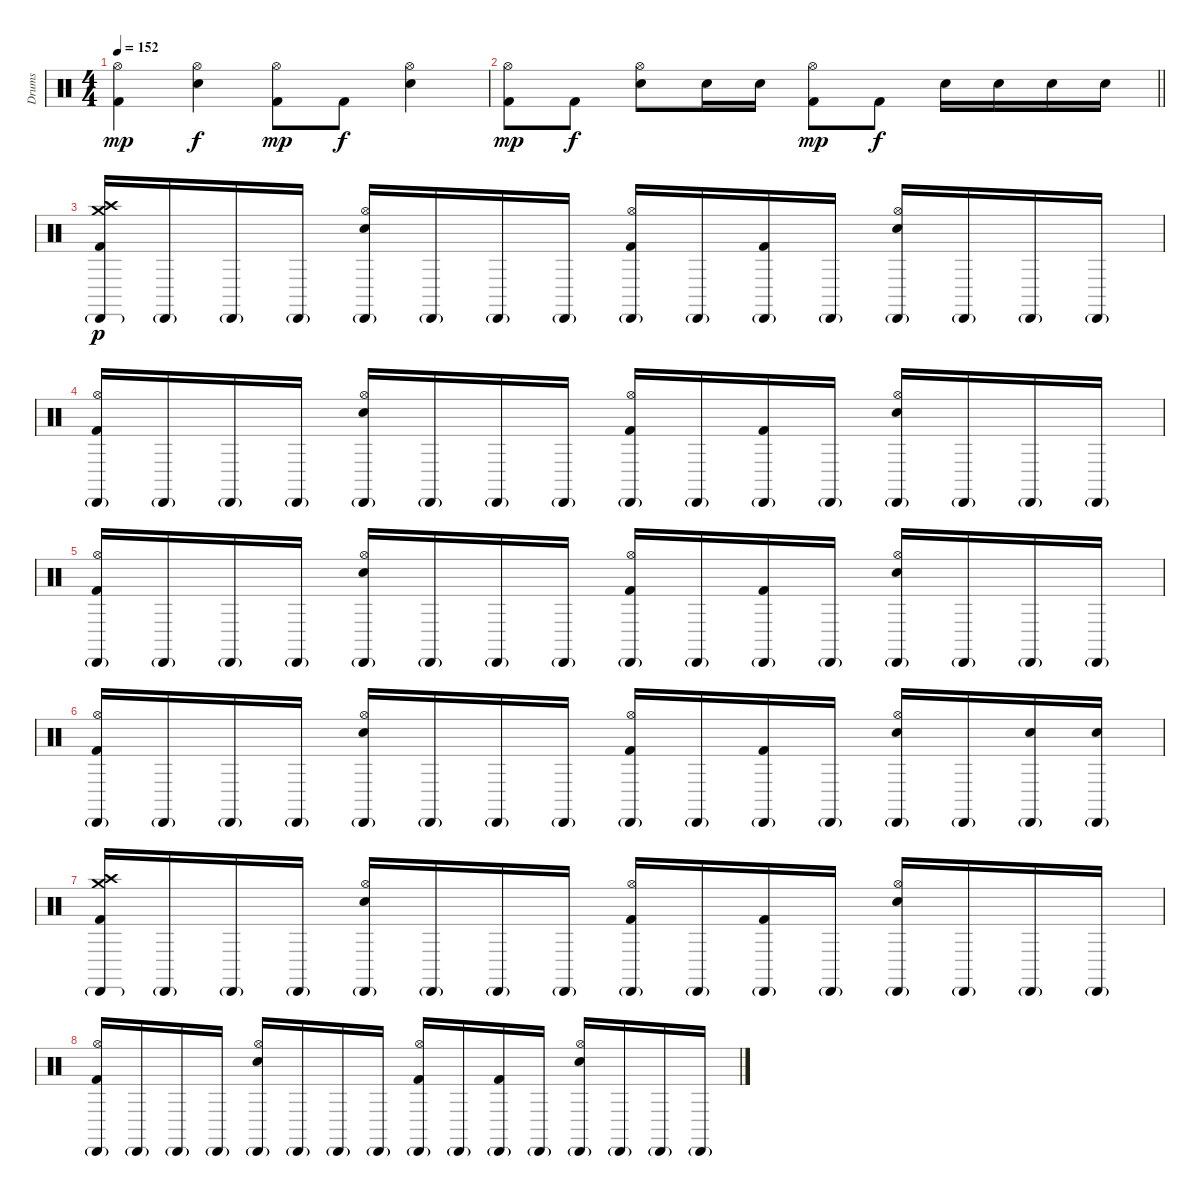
\track ("Drums" "Drums") {instrument percussion}
\staff {score}
\articulation defaults
\ts (4 4)
\tempo 152
\clef neutral
\ks c
("Hi-Hat (open)" "Kick (hit) 2").4{dy mp} ("Hi-Hat (open)" "Electric Snare (hit)").4{dy f} ("Hi-Hat (open)" "Kick (hit) 2").8{dy mp} "Kick (hit) 2".8{dy f} ("Hi-Hat (open)" "Electric Snare (hit)").4 |
\barLineRight lightlight
("Hi-Hat (open)" "Kick (hit) 2").8{dy mp} "Kick (hit) 2".8{dy f} ("Hi-Hat (open)" "Electric Snare (hit)").8 "Electric Snare (hit)".16 "Electric Snare (hit)".16 ("Hi-Hat (open)" "Kick (hit) 2").8{dy mp} "Kick (hit) 2".8{dy f} "Electric Snare (hit)".16 "Electric Snare (hit)".16 "Electric Snare (hit)".16 "Electric Snare (hit)".16 |
("Crash high (hit)" "Crash medium (hit)" "Cabasa (hit)"{g} "Kick (hit) 2").16{dy p} "Cabasa (hit)"{g}.16 "Cabasa (hit)"{g}.16 "Cabasa (hit)"{g}.16 ("Hi-Hat (open)" "Cabasa (hit)"{g} "Electric Snare (hit)").16 "Cabasa (hit)"{g}.16 "Cabasa (hit)"{g}.16 "Cabasa (hit)"{g}.16 ("Hi-Hat (open)" "Cabasa (hit)"{g} "Kick (hit) 2").16 "Cabasa (hit)"{g}.16 ("Cabasa (hit)"{g} "Kick (hit) 2").16 "Cabasa (hit)"{g}.16 ("Hi-Hat (open)" "Cabasa (hit)"{g} "Electric Snare (hit)").16 "Cabasa (hit)"{g}.16 "Cabasa (hit)"{g}.16 "Cabasa (hit)"{g}.16 |
("Hi-Hat (open)" "Cabasa (hit)"{g} "Kick (hit) 2").16 "Cabasa (hit)"{g}.16 "Cabasa (hit)"{g}.16 "Cabasa (hit)"{g}.16 ("Hi-Hat (open)" "Cabasa (hit)"{g} "Electric Snare (hit)").16 "Cabasa (hit)"{g}.16 "Cabasa (hit)"{g}.16 "Cabasa (hit)"{g}.16 ("Hi-Hat (open)" "Cabasa (hit)"{g} "Kick (hit) 2").16 "Cabasa (hit)"{g}.16 ("Cabasa (hit)"{g} "Kick (hit) 2").16 "Cabasa (hit)"{g}.16 ("Hi-Hat (open)" "Cabasa (hit)"{g} "Electric Snare (hit)").16 "Cabasa (hit)"{g}.16 "Cabasa (hit)"{g}.16 "Cabasa (hit)"{g}.16 |
("Hi-Hat (open)" "Cabasa (hit)"{g} "Kick (hit) 2").16 "Cabasa (hit)"{g}.16 "Cabasa (hit)"{g}.16 "Cabasa (hit)"{g}.16 ("Hi-Hat (open)" "Cabasa (hit)"{g} "Electric Snare (hit)").16 "Cabasa (hit)"{g}.16 "Cabasa (hit)"{g}.16 "Cabasa (hit)"{g}.16 ("Hi-Hat (open)" "Cabasa (hit)"{g} "Kick (hit) 2").16 "Cabasa (hit)"{g}.16 ("Cabasa (hit)"{g} "Kick (hit) 2").16 "Cabasa (hit)"{g}.16 ("Hi-Hat (open)" "Cabasa (hit)"{g} "Electric Snare (hit)").16 "Cabasa (hit)"{g}.16 "Cabasa (hit)"{g}.16 "Cabasa (hit)"{g}.16 |
("Hi-Hat (open)" "Cabasa (hit)"{g} "Kick (hit) 2").16 "Cabasa (hit)"{g}.16 "Cabasa (hit)"{g}.16 "Cabasa (hit)"{g}.16 ("Hi-Hat (open)" "Cabasa (hit)"{g} "Electric Snare (hit)").16 "Cabasa (hit)"{g}.16 "Cabasa (hit)"{g}.16 "Cabasa (hit)"{g}.16 ("Hi-Hat (open)" "Cabasa (hit)"{g} "Kick (hit) 2").16 "Cabasa (hit)"{g}.16 ("Cabasa (hit)"{g} "Kick (hit) 2").16 "Cabasa (hit)"{g}.16 ("Hi-Hat (open)" "Cabasa (hit)"{g} "Electric Snare (hit)").16 "Cabasa (hit)"{g}.16 ("Cabasa (hit)"{g} "Electric Snare (hit)").16 ("Cabasa (hit)"{g} "Electric Snare (hit)").16 |
("Crash high (hit)" "Crash medium (hit)" "Cabasa (hit)"{g} "Kick (hit) 2").16 "Cabasa (hit)"{g}.16 "Cabasa (hit)"{g}.16 "Cabasa (hit)"{g}.16 ("Hi-Hat (open)" "Cabasa (hit)"{g} "Electric Snare (hit)").16 "Cabasa (hit)"{g}.16 "Cabasa (hit)"{g}.16 "Cabasa (hit)"{g}.16 ("Hi-Hat (open)" "Cabasa (hit)"{g} "Kick (hit) 2").16 "Cabasa (hit)"{g}.16 ("Cabasa (hit)"{g} "Kick (hit) 2").16 "Cabasa (hit)"{g}.16 ("Hi-Hat (open)" "Cabasa (hit)"{g} "Electric Snare (hit)").16 "Cabasa (hit)"{g}.16 "Cabasa (hit)"{g}.16 "Cabasa (hit)"{g}.16 |
("Hi-Hat (open)" "Cabasa (hit)"{g} "Kick (hit) 2").16 "Cabasa (hit)"{g}.16 "Cabasa (hit)"{g}.16 "Cabasa (hit)"{g}.16 ("Hi-Hat (open)" "Cabasa (hit)"{g} "Electric Snare (hit)").16 "Cabasa (hit)"{g}.16 "Cabasa (hit)"{g}.16 "Cabasa (hit)"{g}.16 ("Hi-Hat (open)" "Cabasa (hit)"{g} "Kick (hit) 2").16 "Cabasa (hit)"{g}.16 ("Cabasa (hit)"{g} "Kick (hit) 2").16 "Cabasa (hit)"{g}.16 ("Hi-Hat (open)" "Cabasa (hit)"{g} "Electric Snare (hit)").16 "Cabasa (hit)"{g}.16 "Cabasa (hit)"{g}.16 "Cabasa (hit)"{g}.16
